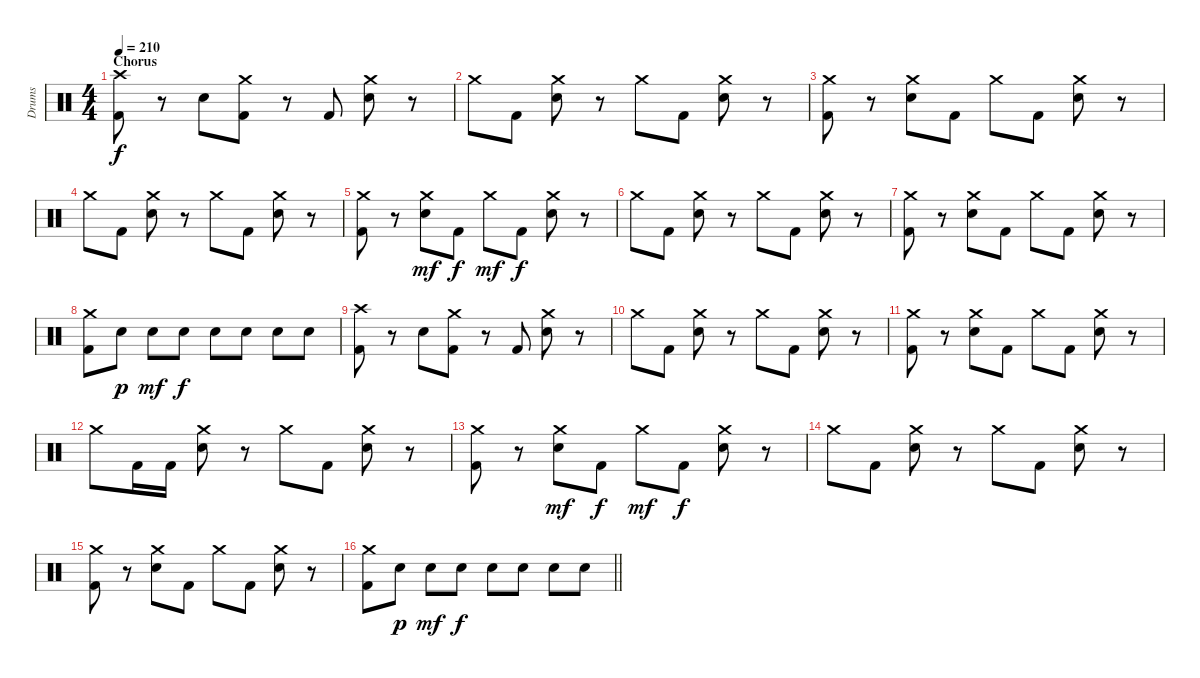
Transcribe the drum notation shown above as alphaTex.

\track ("Drums" "Drums") {instrument percussion}
\staff {score}
\articulation defaults
\ts (4 4)
\section ("" "Chorus")
\tempo 210
\clef neutral
\ks c
("Crash high (hit)" "Kick (hit) 2").8{dy f} r.8 "Electric Snare (hit)".8 ("Crash medium (hit)" "Kick (hit) 2").8 r.8 "Kick (hit) 2".8 ("Crash medium (hit)" "Electric Snare (hit)").8 r.8 |
"Crash medium (hit)".8 "Kick (hit) 2".8 ("Crash medium (hit)" "Electric Snare (hit)").8 r.8 "Crash medium (hit)".8 "Kick (hit) 2".8 ("Crash medium (hit)" "Electric Snare (hit)").8 r.8 |
("Crash medium (hit)" "Kick (hit) 2").8 r.8 ("Crash medium (hit)" "Electric Snare (hit)").8 "Kick (hit) 2".8 "Crash medium (hit)".8 "Kick (hit) 2".8 ("Crash medium (hit)" "Electric Snare (hit)").8 r.8 |
"Crash medium (hit)".8 "Kick (hit) 2".8 ("Crash medium (hit)" "Electric Snare (hit)").8 r.8 "Crash medium (hit)".8 "Kick (hit) 2".8 ("Crash medium (hit)" "Electric Snare (hit)").8 r.8 |
("Crash medium (hit)" "Kick (hit) 2").8 r.8 ("Crash medium (hit)" "Electric Snare (hit)").8{dy mf} "Kick (hit) 2".8{dy f} "Crash medium (hit)".8{dy mf} "Kick (hit) 2".8{dy f} ("Crash medium (hit)" "Electric Snare (hit)").8 r.8 |
"Crash medium (hit)".8 "Kick (hit) 2".8 ("Crash medium (hit)" "Electric Snare (hit)").8 r.8 "Crash medium (hit)".8 "Kick (hit) 2".8 ("Crash medium (hit)" "Electric Snare (hit)").8 r.8 |
("Crash medium (hit)" "Kick (hit) 2").8 r.8 ("Crash medium (hit)" "Electric Snare (hit)").8 "Kick (hit) 2".8 "Crash medium (hit)".8 "Kick (hit) 2".8 ("Crash medium (hit)" "Electric Snare (hit)").8 r.8 |
("Crash medium (hit)" "Kick (hit) 2").8 "Electric Snare (hit)".8{dy p} "Electric Snare (hit)".8{dy mf} "Electric Snare (hit)".8{dy f} "Electric Snare (hit)".8 "Electric Snare (hit)".8 "Electric Snare (hit)".8 "Electric Snare (hit)".8 |
("Crash high (hit)" "Kick (hit) 2").8 r.8 "Electric Snare (hit)".8 ("Crash medium (hit)" "Kick (hit) 2").8 r.8 "Kick (hit) 2".8 ("Crash medium (hit)" "Electric Snare (hit)").8 r.8 |
"Crash medium (hit)".8 "Kick (hit) 2".8 ("Crash medium (hit)" "Electric Snare (hit)").8 r.8 "Crash medium (hit)".8 "Kick (hit) 2".8 ("Crash medium (hit)" "Electric Snare (hit)").8 r.8 |
("Crash medium (hit)" "Kick (hit) 2").8 r.8 ("Crash medium (hit)" "Electric Snare (hit)").8 "Kick (hit) 2".8 "Crash medium (hit)".8 "Kick (hit) 2".8 ("Crash medium (hit)" "Electric Snare (hit)").8 r.8 |
"Crash medium (hit)".8 "Kick (hit) 2".16 "Kick (hit) 2".16 ("Crash medium (hit)" "Electric Snare (hit)").8 r.8 "Crash medium (hit)".8 "Kick (hit) 2".8 ("Crash medium (hit)" "Electric Snare (hit)").8 r.8 |
("Crash medium (hit)" "Kick (hit) 2").8 r.8 ("Crash medium (hit)" "Electric Snare (hit)").8{dy mf} "Kick (hit) 2".8{dy f} "Crash medium (hit)".8{dy mf} "Kick (hit) 2".8{dy f} ("Crash medium (hit)" "Electric Snare (hit)").8 r.8 |
"Crash medium (hit)".8 "Kick (hit) 2".8 ("Crash medium (hit)" "Electric Snare (hit)").8 r.8 "Crash medium (hit)".8 "Kick (hit) 2".8 ("Crash medium (hit)" "Electric Snare (hit)").8 r.8 |
("Crash medium (hit)" "Kick (hit) 2").8 r.8 ("Crash medium (hit)" "Electric Snare (hit)").8 "Kick (hit) 2".8 "Crash medium (hit)".8 "Kick (hit) 2".8 ("Crash medium (hit)" "Electric Snare (hit)").8 r.8 |
\barLineRight lightlight
("Crash medium (hit)" "Kick (hit) 2").8 "Electric Snare (hit)".8{dy p} "Electric Snare (hit)".8{dy mf} "Electric Snare (hit)".8{dy f} "Electric Snare (hit)".8 "Electric Snare (hit)".8 "Electric Snare (hit)".8 "Electric Snare (hit)".8
